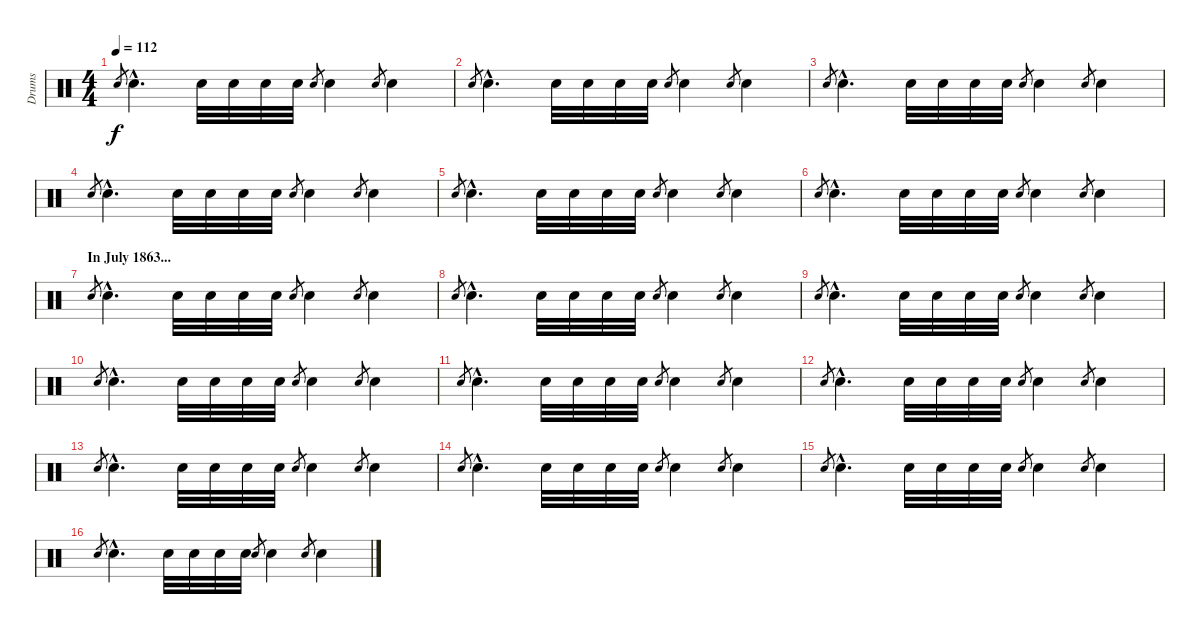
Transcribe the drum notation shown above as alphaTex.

\track ("Drums" "Drums") {instrument percussion}
\staff {score}
\articulation defaults
\ts (4 4)
\tempo 112
\clef neutral
\ks c "Snare (hit) 2".8{gr dy f} "Snare (hit) 2"{hac}.4{d} "Snare (hit) 2".32 "Snare (hit) 2".32 "Snare (hit) 2".32 "Snare (hit) 2".32 "Snare (hit) 2".8{gr} "Snare (hit) 2".4 "Snare (hit) 2".8{gr} "Snare (hit) 2".4
|
"Snare (hit) 2".8{gr} "Snare (hit) 2"{hac}.4{d} "Snare (hit) 2".32 "Snare (hit) 2".32 "Snare (hit) 2".32 "Snare (hit) 2".32 "Snare (hit) 2".8{gr} "Snare (hit) 2".4 "Snare (hit) 2".8{gr} "Snare (hit) 2".4 |
"Snare (hit) 2".8{gr} "Snare (hit) 2"{hac}.4{d} "Snare (hit) 2".32 "Snare (hit) 2".32 "Snare (hit) 2".32 "Snare (hit) 2".32 "Snare (hit) 2".8{gr} "Snare (hit) 2".4 "Snare (hit) 2".8{gr} "Snare (hit) 2".4 |
"Snare (hit) 2".8{gr} "Snare (hit) 2"{hac}.4{d} "Snare (hit) 2".32 "Snare (hit) 2".32 "Snare (hit) 2".32 "Snare (hit) 2".32 "Snare (hit) 2".8{gr} "Snare (hit) 2".4 "Snare (hit) 2".8{gr} "Snare (hit) 2".4 |
"Snare (hit) 2".8{gr} "Snare (hit) 2"{hac}.4{d} "Snare (hit) 2".32 "Snare (hit) 2".32 "Snare (hit) 2".32 "Snare (hit) 2".32 "Snare (hit) 2".8{gr} "Snare (hit) 2".4 "Snare (hit) 2".8{gr} "Snare (hit) 2".4 |
"Snare (hit) 2".8{gr} "Snare (hit) 2"{hac}.4{d} "Snare (hit) 2".32 "Snare (hit) 2".32 "Snare (hit) 2".32 "Snare (hit) 2".32 "Snare (hit) 2".8{gr} "Snare (hit) 2".4 "Snare (hit) 2".8{gr} "Snare (hit) 2".4 |
\section ("" "In July 1863...")
"Snare (hit) 2".8{gr} "Snare (hit) 2"{hac}.4{d} "Snare (hit) 2".32 "Snare (hit) 2".32 "Snare (hit) 2".32 "Snare (hit) 2".32 "Snare (hit) 2".8{gr} "Snare (hit) 2".4 "Snare (hit) 2".8{gr} "Snare (hit) 2".4 |
"Snare (hit) 2".8{gr} "Snare (hit) 2"{hac}.4{d} "Snare (hit) 2".32 "Snare (hit) 2".32 "Snare (hit) 2".32 "Snare (hit) 2".32 "Snare (hit) 2".8{gr} "Snare (hit) 2".4 "Snare (hit) 2".8{gr} "Snare (hit) 2".4 |
"Snare (hit) 2".8{gr} "Snare (hit) 2"{hac}.4{d} "Snare (hit) 2".32 "Snare (hit) 2".32 "Snare (hit) 2".32 "Snare (hit) 2".32 "Snare (hit) 2".8{gr} "Snare (hit) 2".4 "Snare (hit) 2".8{gr} "Snare (hit) 2".4 |
"Snare (hit) 2".8{gr} "Snare (hit) 2"{hac}.4{d} "Snare (hit) 2".32 "Snare (hit) 2".32 "Snare (hit) 2".32 "Snare (hit) 2".32 "Snare (hit) 2".8{gr} "Snare (hit) 2".4 "Snare (hit) 2".8{gr} "Snare (hit) 2".4 |
"Snare (hit) 2".8{gr} "Snare (hit) 2"{hac}.4{d} "Snare (hit) 2".32 "Snare (hit) 2".32 "Snare (hit) 2".32 "Snare (hit) 2".32 "Snare (hit) 2".8{gr} "Snare (hit) 2".4 "Snare (hit) 2".8{gr} "Snare (hit) 2".4 |
"Snare (hit) 2".8{gr} "Snare (hit) 2"{hac}.4{d} "Snare (hit) 2".32 "Snare (hit) 2".32 "Snare (hit) 2".32 "Snare (hit) 2".32 "Snare (hit) 2".8{gr} "Snare (hit) 2".4 "Snare (hit) 2".8{gr} "Snare (hit) 2".4 |
"Snare (hit) 2".8{gr} "Snare (hit) 2"{hac}.4{d} "Snare (hit) 2".32 "Snare (hit) 2".32 "Snare (hit) 2".32 "Snare (hit) 2".32 "Snare (hit) 2".8{gr} "Snare (hit) 2".4 "Snare (hit) 2".8{gr} "Snare (hit) 2".4 |
"Snare (hit) 2".8{gr} "Snare (hit) 2"{hac}.4{d} "Snare (hit) 2".32 "Snare (hit) 2".32 "Snare (hit) 2".32 "Snare (hit) 2".32 "Snare (hit) 2".8{gr} "Snare (hit) 2".4 "Snare (hit) 2".8{gr} "Snare (hit) 2".4 |
"Snare (hit) 2".8{gr} "Snare (hit) 2"{hac}.4{d} "Snare (hit) 2".32 "Snare (hit) 2".32 "Snare (hit) 2".32 "Snare (hit) 2".32 "Snare (hit) 2".8{gr} "Snare (hit) 2".4 "Snare (hit) 2".8{gr} "Snare (hit) 2".4 |
"Snare (hit) 2".8{gr} "Snare (hit) 2"{hac}.4{d} "Snare (hit) 2".32 "Snare (hit) 2".32 "Snare (hit) 2".32 "Snare (hit) 2".32 "Snare (hit) 2".8{gr} "Snare (hit) 2".4 "Snare (hit) 2".8{gr} "Snare (hit) 2".4
